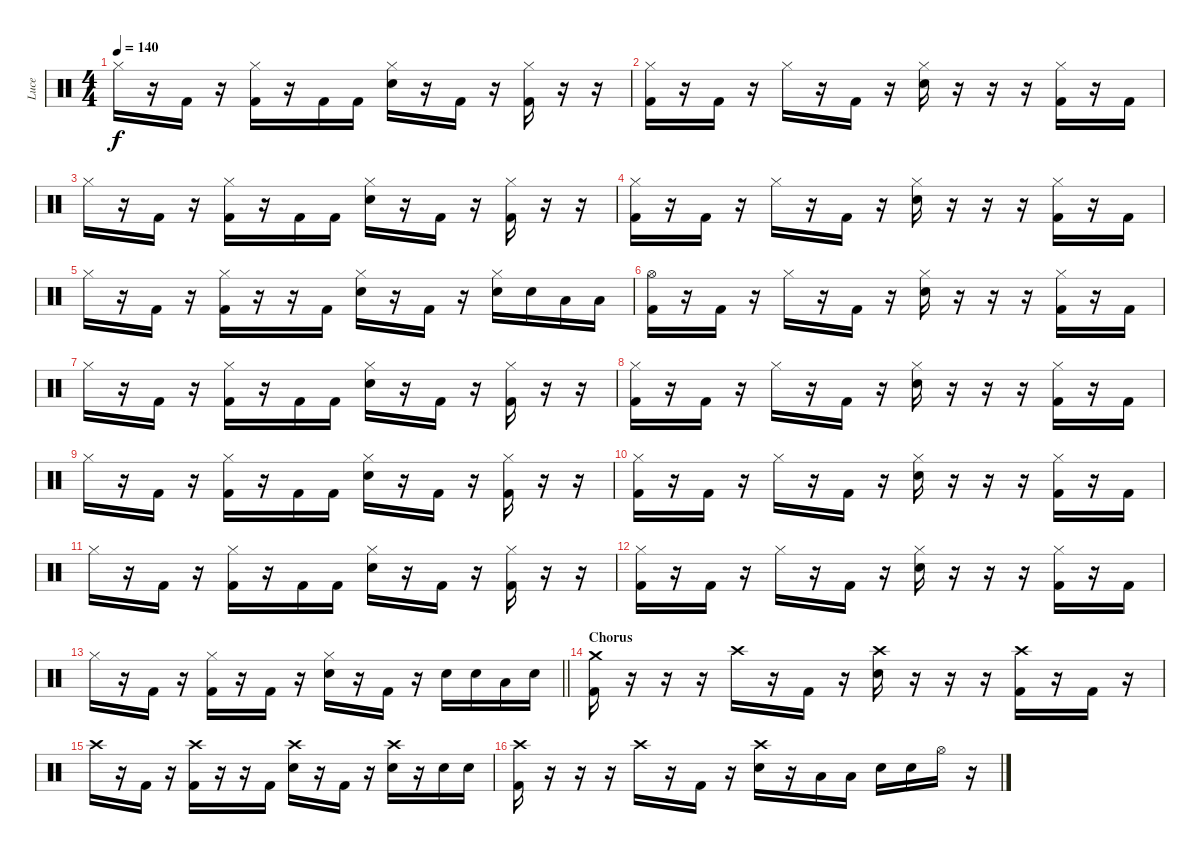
\track ("Luce" "Luce") {instrument percussion}
\staff {score}
\articulation defaults
\ts (4 4)
\tempo 140
\clef neutral
\ks c "Hi-Hat (closed)".16{dy f}
r.16 "Kick (hit) 2".16 r.16 ("Hi-Hat (closed)" "Kick (hit) 2").16 r.16 "Kick (hit) 2".16 "Kick (hit) 2".16 ("Hi-Hat (closed)" "Electric Snare (hit)").16 r.16 "Kick (hit) 2".16 r.16 ("Hi-Hat (closed)" "Kick (hit) 2").16 r.16 r.16 |
("Hi-Hat (closed)" "Kick (hit) 2").16 r.16 "Kick (hit) 2".16 r.16 "Hi-Hat (closed)".16 r.16 "Kick (hit) 2".16 r.16 ("Hi-Hat (closed)" "Electric Snare (hit)").16 r.16 r.16 r.16 ("Hi-Hat (closed)" "Kick (hit) 2").16 r.16 "Kick (hit) 2".16 |
"Hi-Hat (closed)".16 r.16 "Kick (hit) 2".16 r.16 ("Hi-Hat (closed)" "Kick (hit) 2").16 r.16 "Kick (hit) 2".16 "Kick (hit) 2".16 ("Hi-Hat (closed)" "Electric Snare (hit)").16 r.16 "Kick (hit) 2".16 r.16 ("Hi-Hat (closed)" "Kick (hit) 2").16 r.16 r.16 |
("Hi-Hat (closed)" "Kick (hit) 2").16 r.16 "Kick (hit) 2".16 r.16 "Hi-Hat (closed)".16 r.16 "Kick (hit) 2".16 r.16 ("Hi-Hat (closed)" "Electric Snare (hit)").16 r.16 r.16 r.16 ("Hi-Hat (closed)" "Kick (hit) 2").16 r.16 "Kick (hit) 2".16 |
"Hi-Hat (closed)".16 r.16 "Kick (hit) 2".16 r.16 ("Hi-Hat (closed)" "Kick (hit) 2").16 r.16 r.16 "Kick (hit) 2".16 ("Hi-Hat (closed)" "Electric Snare (hit)").16 r.16 "Kick (hit) 2".16 r.16 ("Hi-Hat (closed)" "Electric Snare (hit)").16 "Electric Snare (hit)".16 "Low Tom (hit)".16 "Low Tom (hit)".16 |
("Hi-Hat (open)" "Kick (hit) 2").16 r.16 "Kick (hit) 2".16 r.16 "Hi-Hat (closed)".16 r.16 "Kick (hit) 2".16 r.16 ("Hi-Hat (closed)" "Electric Snare (hit)").16 r.16 r.16 r.16 ("Hi-Hat (closed)" "Kick (hit) 2").16 r.16 "Kick (hit) 2".16 |
"Hi-Hat (closed)".16 r.16 "Kick (hit) 2".16 r.16 ("Hi-Hat (closed)" "Kick (hit) 2").16 r.16 "Kick (hit) 2".16 "Kick (hit) 2".16 ("Hi-Hat (closed)" "Electric Snare (hit)").16 r.16 "Kick (hit) 2".16 r.16 ("Hi-Hat (closed)" "Kick (hit) 2").16 r.16 r.16 |
("Hi-Hat (closed)" "Kick (hit) 2").16 r.16 "Kick (hit) 2".16 r.16 "Hi-Hat (closed)".16 r.16 "Kick (hit) 2".16 r.16 ("Hi-Hat (closed)" "Electric Snare (hit)").16 r.16 r.16 r.16 ("Hi-Hat (closed)" "Kick (hit) 2").16 r.16 "Kick (hit) 2".16 |
"Hi-Hat (closed)".16 r.16 "Kick (hit) 2".16 r.16 ("Hi-Hat (closed)" "Kick (hit) 2").16 r.16 "Kick (hit) 2".16 "Kick (hit) 2".16 ("Hi-Hat (closed)" "Electric Snare (hit)").16 r.16 "Kick (hit) 2".16 r.16 ("Hi-Hat (closed)" "Kick (hit) 2").16 r.16 r.16 |
("Hi-Hat (closed)" "Kick (hit) 2").16 r.16 "Kick (hit) 2".16 r.16 "Hi-Hat (closed)".16 r.16 "Kick (hit) 2".16 r.16 ("Hi-Hat (closed)" "Electric Snare (hit)").16 r.16 r.16 r.16 ("Hi-Hat (closed)" "Kick (hit) 2").16 r.16 "Kick (hit) 2".16 |
"Hi-Hat (closed)".16 r.16 "Kick (hit) 2".16 r.16 ("Hi-Hat (closed)" "Kick (hit) 2").16 r.16 "Kick (hit) 2".16 "Kick (hit) 2".16 ("Hi-Hat (closed)" "Electric Snare (hit)").16 r.16 "Kick (hit) 2".16 r.16 ("Hi-Hat (closed)" "Kick (hit) 2").16 r.16 r.16 |
("Hi-Hat (closed)" "Kick (hit) 2").16 r.16 "Kick (hit) 2".16 r.16 "Hi-Hat (closed)".16 r.16 "Kick (hit) 2".16 r.16 ("Hi-Hat (closed)" "Electric Snare (hit)").16 r.16 r.16 r.16 ("Hi-Hat (closed)" "Kick (hit) 2").16 r.16 "Kick (hit) 2".16 |
\barLineRight lightlight "Hi-Hat (closed)".16
r.16 "Kick (hit) 2".16 r.16 ("Hi-Hat (closed)" "Kick (hit) 2").16 r.16 "Kick (hit) 2".16 r.16 ("Hi-Hat (closed)" "Electric Snare (hit)").16 r.16 "Kick (hit) 2".16 r.16 "Electric Snare (hit)".16 "Electric Snare (hit)".16 "Low Tom (hit)".16 "Electric Snare (hit)".16 |
\section ("" "Chorus")
("Crash medium (hit)" "Kick (hit) 2").16 r.16 r.16 r.16 "Crash high (hit)".16 r.16 "Kick (hit) 2".16 r.16 ("Crash high (hit)" "Electric Snare (hit)").16 r.16 r.16 r.16 ("Crash high (hit)" "Kick (hit) 2").16 r.16 "Kick (hit) 2".16 r.16 |
"Crash high (hit)".16 r.16 "Kick (hit) 2".16 r.16 ("Crash high (hit)" "Kick (hit) 2").16 r.16 r.16 "Kick (hit) 2".16 ("Crash high (hit)" "Electric Snare (hit)").16 r.16 "Kick (hit) 2".16 r.16 ("Crash high (hit)" "Electric Snare (hit)").16 r.16 "Electric Snare (hit)".16 "Electric Snare (hit)".16 |
("Crash high (hit)" "Kick (hit) 2").16 r.16 r.16 r.16 "Crash high (hit)".16 r.16 "Kick (hit) 2".16 r.16 ("Crash high (hit)" "Electric Snare (hit)").16 r.16 "Low Tom (hit)".16 "Low Tom (hit)".16 "Electric Snare (hit)".16 "Electric Snare (hit)".16 "Hi-Hat (open)".16 r.16
